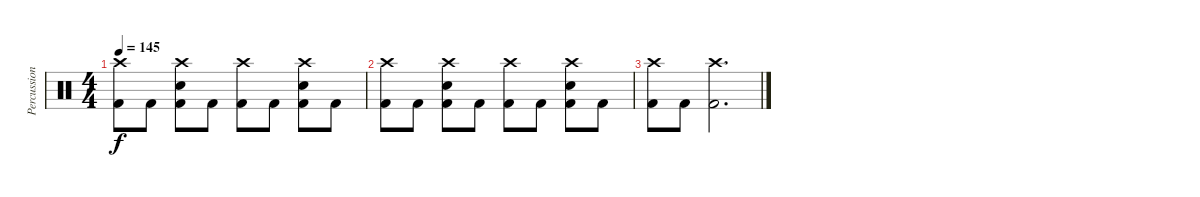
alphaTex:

\track ("Percussion" "Percussion") {instrument percussion}
\staff {score}
\articulation defaults
\ts (4 4)
\tempo 145
\clef neutral
\ks c
("Crash high (hit)" "Kick (hit) 2").8{dy f volume 13} "Kick (hit) 2".8 ("Crash high (hit)" "Electric Snare (hit)" "Kick (hit) 2").8 "Kick (hit) 2".8 ("Crash high (hit)" "Kick (hit) 2").8 "Kick (hit) 2".8 ("Crash high (hit)" "Electric Snare (hit)" "Kick (hit) 2").8 "Kick (hit) 2".8 |
("Crash high (hit)" "Kick (hit) 2").8 "Kick (hit) 2".8 ("Crash high (hit)" "Electric Snare (hit)" "Kick (hit) 2").8 "Kick (hit) 2".8 ("Crash high (hit)" "Kick (hit) 2").8 "Kick (hit) 2".8 ("Crash high (hit)" "Electric Snare (hit)" "Kick (hit) 2").8 "Kick (hit) 2".8 |
("Crash high (hit)" "Kick (hit) 2").8 "Kick (hit) 2".8 ("Crash high (hit)" "Kick (hit) 2").2{d}
